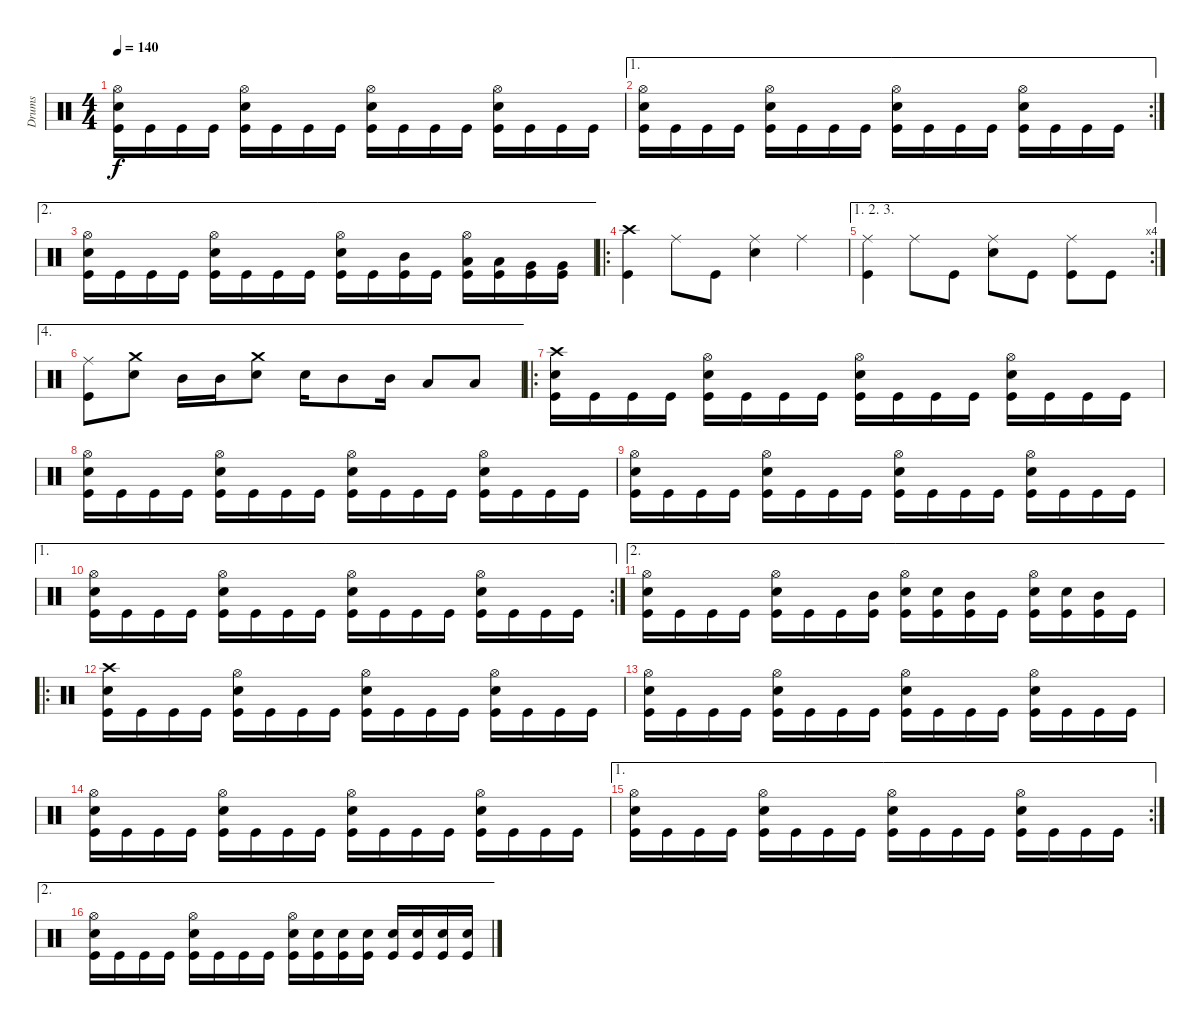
\track ("Drums" "Drums") {instrument percussion}
\staff {score}
\articulation defaults
\ts (4 4)
\tempo 140
\clef neutral
\ks c
("Hi-Hat (open)" "Electric Snare (hit)" "Kick (hit)").16{dy f} "Kick (hit)".16 "Kick (hit)".16 "Kick (hit)".16 ("Hi-Hat (open)" "Electric Snare (hit)" "Kick (hit)").16 "Kick (hit)".16 "Kick (hit)".16 "Kick (hit)".16 ("Hi-Hat (open)" "Electric Snare (hit)" "Kick (hit)").16 "Kick (hit)".16 "Kick (hit)".16 "Kick (hit)".16 ("Hi-Hat (open)" "Electric Snare (hit)" "Kick (hit)").16 "Kick (hit)".16 "Kick (hit)".16 "Kick (hit)".16 |
\ae 1
\rc 2
("Hi-Hat (open)" "Electric Snare (hit)" "Kick (hit)").16 "Kick (hit)".16 "Kick (hit)".16 "Kick (hit)".16 ("Hi-Hat (open)" "Electric Snare (hit)" "Kick (hit)").16 "Kick (hit)".16 "Kick (hit)".16 "Kick (hit)".16 ("Hi-Hat (open)" "Electric Snare (hit)" "Kick (hit)").16 "Kick (hit)".16 "Kick (hit)".16 "Kick (hit)".16 ("Hi-Hat (open)" "Electric Snare (hit)" "Kick (hit)").16 "Kick (hit)".16 "Kick (hit)".16 "Kick (hit)".16 |
\ae 2
("Hi-Hat (open)" "Electric Snare (hit)" "Kick (hit)").16 "Kick (hit)".16 "Kick (hit)".16 "Kick (hit)".16 ("Hi-Hat (open)" "Electric Snare (hit)" "Kick (hit)").16 "Kick (hit)".16 "Kick (hit)".16 "Kick (hit)".16 ("Hi-Hat (open)" "Electric Snare (hit)" "Kick (hit)").16 "Kick (hit)".16 ("Mid Tom (hit)" "Kick (hit)").16 "Kick (hit)".16 ("Hi-Hat (open)" "Low Tom (hit)" "Kick (hit)").16 ("Low Tom (hit)" "Kick (hit)").16 ("Very Low Tom (hit)" "Kick (hit)").16 ("Very Low Tom (hit)" "Kick (hit)").16 |
\ro
("Crash high (hit)" "Kick (hit)").4 "Ride (middle)".8 "Kick (hit)".8 ("Ride (middle)" "Electric Snare (hit)").4 "Ride (middle)".4 |
\ae (1 2 3)
\rc 4
("Ride (middle)" "Kick (hit)").4 "Ride (middle)".8 "Kick (hit)".8 ("Ride (middle)" "Electric Snare (hit)").8 "Kick (hit)".8 ("Ride (middle)" "Kick (hit)").8 "Kick (hit)".8 |
\ae 4
("Ride (middle)" "Kick (hit)").8 ("Crash medium (hit)" "Electric Snare (hit)").8 "Mid Tom (hit)".16 "Mid Tom (hit)".16 ("Crash medium (hit)" "Electric Snare (hit)").8 "Electric Snare (hit)".16 "Mid Tom (hit)".8 "Mid Tom (hit)".16 "Low Tom (hit)".8 "Low Tom (hit)".8 |
\ro
("Crash high (hit)" "Electric Snare (hit)" "Kick (hit)").16 "Kick (hit)".16 "Kick (hit)".16 "Kick (hit)".16 ("Hi-Hat (open)" "Electric Snare (hit)" "Kick (hit)").16 "Kick (hit)".16 "Kick (hit)".16 "Kick (hit)".16 ("Hi-Hat (open)" "Electric Snare (hit)" "Kick (hit)").16 "Kick (hit)".16 "Kick (hit)".16 "Kick (hit)".16 ("Hi-Hat (open)" "Electric Snare (hit)" "Kick (hit)").16 "Kick (hit)".16 "Kick (hit)".16 "Kick (hit)".16 |
("Hi-Hat (open)" "Electric Snare (hit)" "Kick (hit)").16 "Kick (hit)".16 "Kick (hit)".16 "Kick (hit)".16 ("Hi-Hat (open)" "Electric Snare (hit)" "Kick (hit)").16 "Kick (hit)".16 "Kick (hit)".16 "Kick (hit)".16 ("Hi-Hat (open)" "Electric Snare (hit)" "Kick (hit)").16 "Kick (hit)".16 "Kick (hit)".16 "Kick (hit)".16 ("Hi-Hat (open)" "Electric Snare (hit)" "Kick (hit)").16 "Kick (hit)".16 "Kick (hit)".16 "Kick (hit)".16 |
("Hi-Hat (open)" "Electric Snare (hit)" "Kick (hit)").16 "Kick (hit)".16 "Kick (hit)".16 "Kick (hit)".16 ("Hi-Hat (open)" "Electric Snare (hit)" "Kick (hit)").16 "Kick (hit)".16 "Kick (hit)".16 "Kick (hit)".16 ("Hi-Hat (open)" "Electric Snare (hit)" "Kick (hit)").16 "Kick (hit)".16 "Kick (hit)".16 "Kick (hit)".16 ("Hi-Hat (open)" "Electric Snare (hit)" "Kick (hit)").16 "Kick (hit)".16 "Kick (hit)".16 "Kick (hit)".16 |
\ae 1
\rc 2
("Hi-Hat (open)" "Electric Snare (hit)" "Kick (hit)").16 "Kick (hit)".16 "Kick (hit)".16 "Kick (hit)".16 ("Hi-Hat (open)" "Electric Snare (hit)" "Kick (hit)").16 "Kick (hit)".16 "Kick (hit)".16 "Kick (hit)".16 ("Hi-Hat (open)" "Electric Snare (hit)" "Kick (hit)").16 "Kick (hit)".16 "Kick (hit)".16 "Kick (hit)".16 ("Hi-Hat (open)" "Electric Snare (hit)" "Kick (hit)").16 "Kick (hit)".16 "Kick (hit)".16 "Kick (hit)".16 |
\ae 2
("Hi-Hat (open)" "Electric Snare (hit)" "Kick (hit)").16 "Kick (hit)".16 "Kick (hit)".16 "Kick (hit)".16 ("Hi-Hat (open)" "Electric Snare (hit)" "Kick (hit)").16 "Kick (hit)".16 "Kick (hit)".16 ("Mid Tom (hit)" "Kick (hit)").16 ("Hi-Hat (open)" "Electric Snare (hit)" "Kick (hit)").16 ("Electric Snare (hit)" "Kick (hit)").16 ("Mid Tom (hit)" "Kick (hit)").16 "Kick (hit)".16 ("Hi-Hat (open)" "Electric Snare (hit)" "Kick (hit)").16 ("Electric Snare (hit)" "Kick (hit)").16 ("Mid Tom (hit)" "Kick (hit)").16 "Kick (hit)".16 |
\ro
("Crash high (hit)" "Electric Snare (hit)" "Kick (hit)").16 "Kick (hit)".16 "Kick (hit)".16 "Kick (hit)".16 ("Hi-Hat (open)" "Electric Snare (hit)" "Kick (hit)").16 "Kick (hit)".16 "Kick (hit)".16 "Kick (hit)".16 ("Hi-Hat (open)" "Electric Snare (hit)" "Kick (hit)").16 "Kick (hit)".16 "Kick (hit)".16 "Kick (hit)".16 ("Hi-Hat (open)" "Electric Snare (hit)" "Kick (hit)").16 "Kick (hit)".16 "Kick (hit)".16 "Kick (hit)".16 |
("Hi-Hat (open)" "Electric Snare (hit)" "Kick (hit)").16 "Kick (hit)".16 "Kick (hit)".16 "Kick (hit)".16 ("Hi-Hat (open)" "Electric Snare (hit)" "Kick (hit)").16 "Kick (hit)".16 "Kick (hit)".16 "Kick (hit)".16 ("Hi-Hat (open)" "Electric Snare (hit)" "Kick (hit)").16 "Kick (hit)".16 "Kick (hit)".16 "Kick (hit)".16 ("Hi-Hat (open)" "Electric Snare (hit)" "Kick (hit)").16 "Kick (hit)".16 "Kick (hit)".16 "Kick (hit)".16 |
("Hi-Hat (open)" "Electric Snare (hit)" "Kick (hit)").16 "Kick (hit)".16 "Kick (hit)".16 "Kick (hit)".16 ("Hi-Hat (open)" "Electric Snare (hit)" "Kick (hit)").16 "Kick (hit)".16 "Kick (hit)".16 "Kick (hit)".16 ("Hi-Hat (open)" "Electric Snare (hit)" "Kick (hit)").16 "Kick (hit)".16 "Kick (hit)".16 "Kick (hit)".16 ("Hi-Hat (open)" "Electric Snare (hit)" "Kick (hit)").16 "Kick (hit)".16 "Kick (hit)".16 "Kick (hit)".16 |
\ae 1
\rc 2
("Hi-Hat (open)" "Electric Snare (hit)" "Kick (hit)").16 "Kick (hit)".16 "Kick (hit)".16 "Kick (hit)".16 ("Hi-Hat (open)" "Electric Snare (hit)" "Kick (hit)").16 "Kick (hit)".16 "Kick (hit)".16 "Kick (hit)".16 ("Hi-Hat (open)" "Electric Snare (hit)" "Kick (hit)").16 "Kick (hit)".16 "Kick (hit)".16 "Kick (hit)".16 ("Hi-Hat (open)" "Electric Snare (hit)" "Kick (hit)").16 "Kick (hit)".16 "Kick (hit)".16 "Kick (hit)".16 |
\ae 2
("Hi-Hat (open)" "Electric Snare (hit)" "Kick (hit)").16 "Kick (hit)".16 "Kick (hit)".16 "Kick (hit)".16 ("Hi-Hat (open)" "Electric Snare (hit)" "Kick (hit)").16 "Kick (hit)".16 "Kick (hit)".16 "Kick (hit)".16 ("Hi-Hat (open)" "Electric Snare (hit)" "Kick (hit)").16 ("Electric Snare (hit)" "Kick (hit)").16 ("Electric Snare (hit)" "Kick (hit)").16 ("Electric Snare (hit)" "Kick (hit)").16 ("Electric Snare (hit)" "Kick (hit)").16 ("Electric Snare (hit)" "Kick (hit)").16 ("Electric Snare (hit)" "Kick (hit)").16 ("Electric Snare (hit)" "Kick (hit)").16
